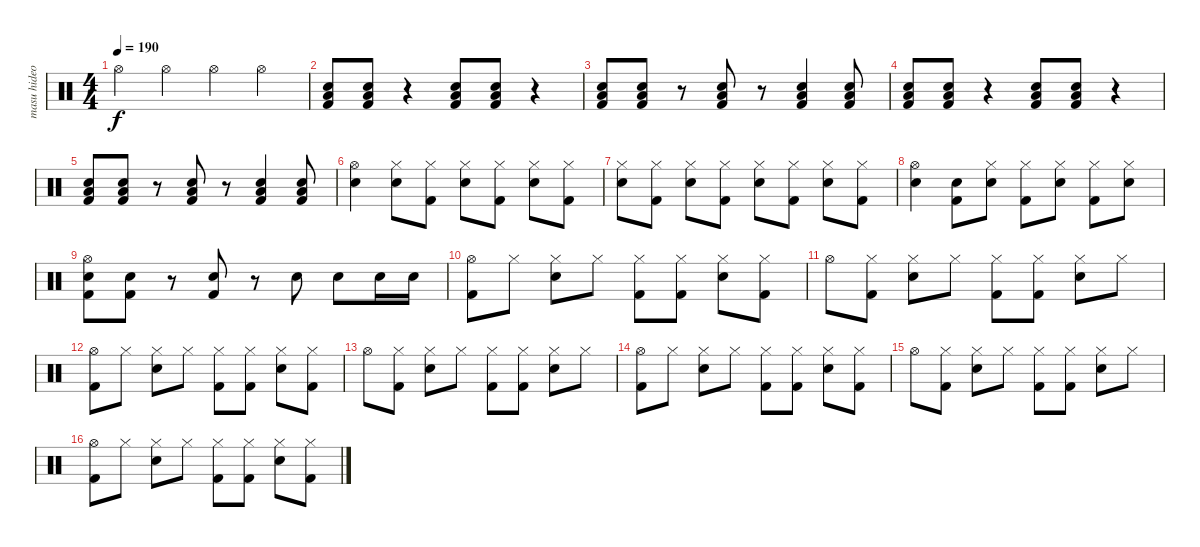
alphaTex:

\track ("masu hideo" "masu hideo") {instrument percussion}
\staff {score}
\articulation defaults
\ts (4 4)
\tempo 190
\clef neutral
\ks c "Hi-Hat (open)".4{dy f} "Hi-Hat (open)".4 "Hi-Hat (open)".4 "Hi-Hat (open)".4
|
("Snare (hit) 2" "Low Floor Tom (hit)" "Kick (hit) 2").8 ("Snare (hit) 2" "Low Floor Tom (hit)" "Kick (hit) 2").8 r.4 ("Snare (hit) 2" "Low Floor Tom (hit)" "Kick (hit) 2").8 ("Snare (hit) 2" "Low Floor Tom (hit)" "Kick (hit) 2").8 r.4 |
("Snare (hit) 2" "Low Floor Tom (hit)" "Kick (hit) 2").8 ("Snare (hit) 2" "Low Floor Tom (hit)" "Kick (hit) 2").8 r.8 ("Snare (hit) 2" "Low Floor Tom (hit)" "Kick (hit) 2").8 r.8 ("Snare (hit) 2" "Low Floor Tom (hit)" "Kick (hit) 2").4 ("Snare (hit) 2" "Low Floor Tom (hit)" "Kick (hit) 2").8 |
("Snare (hit) 2" "Low Floor Tom (hit)" "Kick (hit) 2").8 ("Snare (hit) 2" "Low Floor Tom (hit)" "Kick (hit) 2").8 r.4 ("Snare (hit) 2" "Low Floor Tom (hit)" "Kick (hit) 2").8 ("Snare (hit) 2" "Low Floor Tom (hit)" "Kick (hit) 2").8 r.4 |
("Snare (hit) 2" "Low Floor Tom (hit)" "Kick (hit) 2").8 ("Snare (hit) 2" "Low Floor Tom (hit)" "Kick (hit) 2").8 r.8 ("Snare (hit) 2" "Low Floor Tom (hit)" "Kick (hit) 2").8 r.8 ("Snare (hit) 2" "Low Floor Tom (hit)" "Kick (hit) 2").4 ("Snare (hit) 2" "Low Floor Tom (hit)" "Kick (hit) 2").8 |
("Hi-Hat (open)" "Snare (hit) 2").4 ("Hi-Hat (closed)" "Snare (hit) 2").8 ("Hi-Hat (closed)" "Kick (hit) 2").8 ("Hi-Hat (closed)" "Snare (hit) 2").8 ("Hi-Hat (closed)" "Kick (hit) 2").8 ("Hi-Hat (closed)" "Snare (hit) 2").8 ("Hi-Hat (closed)" "Kick (hit) 2").8 |
("Hi-Hat (closed)" "Snare (hit) 2").8 ("Hi-Hat (closed)" "Kick (hit) 2").8 ("Hi-Hat (closed)" "Snare (hit) 2").8 ("Hi-Hat (closed)" "Kick (hit) 2").8 ("Hi-Hat (closed)" "Snare (hit) 2").8 ("Hi-Hat (closed)" "Kick (hit) 2").8 ("Hi-Hat (closed)" "Snare (hit) 2").8 ("Hi-Hat (closed)" "Kick (hit) 2").8 |
("Hi-Hat (open)" "Snare (hit) 2").4 ("Snare (hit) 2" "Kick (hit) 2").8 ("Hi-Hat (closed)" "Snare (hit) 2").8 ("Hi-Hat (closed)" "Kick (hit) 2").8 ("Hi-Hat (closed)" "Snare (hit) 2").8 ("Hi-Hat (closed)" "Kick (hit) 2").8 ("Hi-Hat (closed)" "Snare (hit) 2").8 |
("Hi-Hat (open)" "Snare (hit) 2" "Kick (hit) 2").8 ("Snare (hit) 2" "Kick (hit) 2").8 r.8 ("Snare (hit) 2" "Kick (hit) 2").8 r.8 "Snare (hit) 2".8 "Snare (hit) 2".8 "Snare (hit) 2".16 "Snare (hit) 2".16 |
("Hi-Hat (open)" "Kick (hit) 2").8 "Hi-Hat (closed)".8 ("Hi-Hat (closed)" "Snare (hit) 2").8 "Hi-Hat (closed)".8 ("Hi-Hat (closed)" "Kick (hit) 2").8 ("Hi-Hat (closed)" "Kick (hit) 2").8 ("Hi-Hat (closed)" "Snare (hit) 2").8 ("Hi-Hat (closed)" "Kick (hit) 2").8 |
"Hi-Hat (open)".8 ("Hi-Hat (closed)" "Kick (hit) 2").8 ("Hi-Hat (closed)" "Snare (hit) 2").8 "Hi-Hat (closed)".8 ("Hi-Hat (closed)" "Kick (hit) 2").8 ("Hi-Hat (closed)" "Kick (hit) 2").8 ("Hi-Hat (closed)" "Snare (hit) 2").8 "Hi-Hat (closed)".8 |
("Hi-Hat (open)" "Kick (hit) 2").8 "Hi-Hat (closed)".8 ("Hi-Hat (closed)" "Snare (hit) 2").8 "Hi-Hat (closed)".8 ("Hi-Hat (closed)" "Kick (hit) 2").8 ("Hi-Hat (closed)" "Kick (hit) 2").8 ("Hi-Hat (closed)" "Snare (hit) 2").8 ("Hi-Hat (closed)" "Kick (hit) 2").8 |
"Hi-Hat (open)".8 ("Hi-Hat (closed)" "Kick (hit) 2").8 ("Hi-Hat (closed)" "Snare (hit) 2").8 "Hi-Hat (closed)".8 ("Hi-Hat (closed)" "Kick (hit) 2").8 ("Hi-Hat (closed)" "Kick (hit) 2").8 ("Hi-Hat (closed)" "Snare (hit) 2").8 "Hi-Hat (closed)".8 |
("Hi-Hat (open)" "Kick (hit) 2").8 "Hi-Hat (closed)".8 ("Hi-Hat (closed)" "Snare (hit) 2").8 "Hi-Hat (closed)".8 ("Hi-Hat (closed)" "Kick (hit) 2").8 ("Hi-Hat (closed)" "Kick (hit) 2").8 ("Hi-Hat (closed)" "Snare (hit) 2").8 ("Hi-Hat (closed)" "Kick (hit) 2").8 |
"Hi-Hat (open)".8 ("Hi-Hat (closed)" "Kick (hit) 2").8 ("Hi-Hat (closed)" "Snare (hit) 2").8 "Hi-Hat (closed)".8 ("Hi-Hat (closed)" "Kick (hit) 2").8 ("Hi-Hat (closed)" "Kick (hit) 2").8 ("Hi-Hat (closed)" "Snare (hit) 2").8 "Hi-Hat (closed)".8 |
("Hi-Hat (open)" "Kick (hit) 2").8 "Hi-Hat (closed)".8 ("Hi-Hat (closed)" "Snare (hit) 2").8 "Hi-Hat (closed)".8 ("Hi-Hat (closed)" "Kick (hit) 2").8 ("Hi-Hat (closed)" "Kick (hit) 2").8 ("Hi-Hat (closed)" "Snare (hit) 2").8 ("Hi-Hat (closed)" "Kick (hit) 2").8
